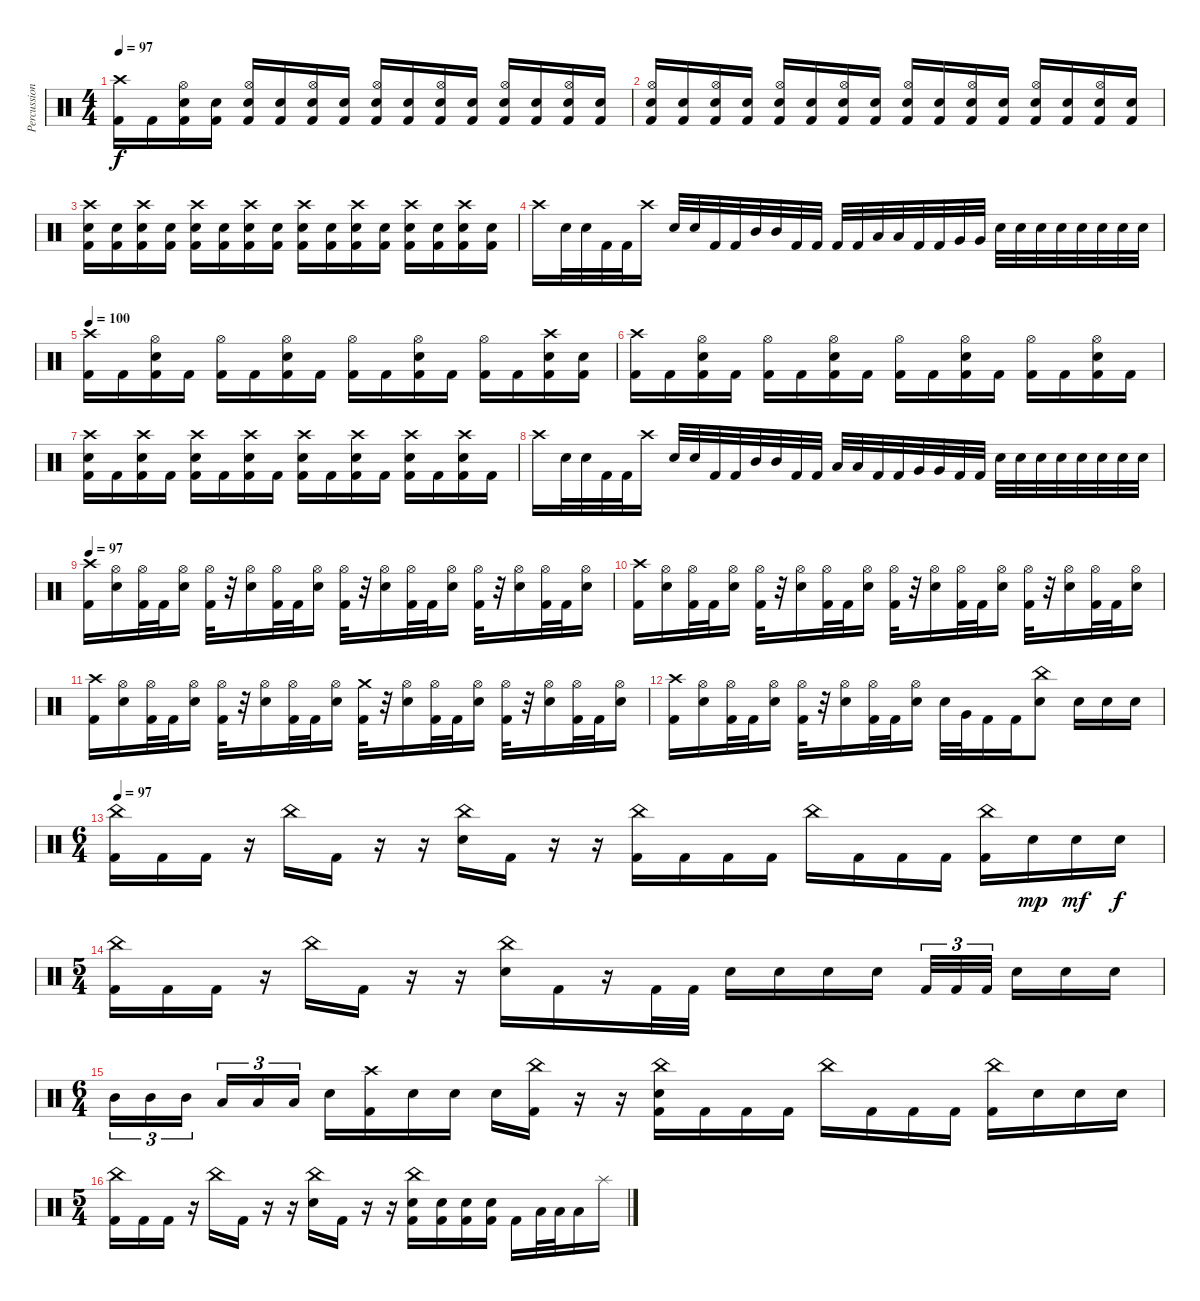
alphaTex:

\track ("Percussion" "Percussion") {instrument percussion}
\staff {score}
\articulation defaults
\ts (4 4)
\tempo 97
\clef neutral
\ks c
("Crash high (hit)" "Kick (hit) 2").16{dy f} "Kick (hit) 2".16 ("Hi-Hat (open)" "Snare (hit) 2" "Kick (hit) 2").16 ("Snare (hit) 2" "Kick (hit) 2").16 ("Hi-Hat (open)" "Snare (hit) 2" "Kick (hit) 2").16 ("Snare (hit) 2" "Kick (hit) 2").16 ("Hi-Hat (open)" "Snare (hit) 2" "Kick (hit) 2").16 ("Snare (hit) 2" "Kick (hit) 2").16 ("Hi-Hat (open)" "Snare (hit) 2" "Kick (hit) 2").16 ("Snare (hit) 2" "Kick (hit) 2").16 ("Hi-Hat (open)" "Snare (hit) 2" "Kick (hit) 2").16 ("Snare (hit) 2" "Kick (hit) 2").16 ("Hi-Hat (open)" "Snare (hit) 2" "Kick (hit) 2").16 ("Snare (hit) 2" "Kick (hit) 2").16 ("Hi-Hat (open)" "Snare (hit) 2" "Kick (hit) 2").16 ("Snare (hit) 2" "Kick (hit) 2").16 |
("Hi-Hat (open)" "Snare (hit) 2" "Kick (hit) 2").16 ("Snare (hit) 2" "Kick (hit) 2").16 ("Hi-Hat (open)" "Snare (hit) 2" "Kick (hit) 2").16 ("Snare (hit) 2" "Kick (hit) 2").16 ("Hi-Hat (open)" "Snare (hit) 2" "Kick (hit) 2").16 ("Snare (hit) 2" "Kick (hit) 2").16 ("Hi-Hat (open)" "Snare (hit) 2" "Kick (hit) 2").16 ("Snare (hit) 2" "Kick (hit) 2").16 ("Hi-Hat (open)" "Snare (hit) 2" "Kick (hit) 2").16 ("Snare (hit) 2" "Kick (hit) 2").16 ("Hi-Hat (open)" "Snare (hit) 2" "Kick (hit) 2").16 ("Snare (hit) 2" "Kick (hit) 2").16 ("Hi-Hat (open)" "Snare (hit) 2" "Kick (hit) 2").16 ("Snare (hit) 2" "Kick (hit) 2").16 ("Hi-Hat (open)" "Snare (hit) 2" "Kick (hit) 2").16 ("Snare (hit) 2" "Kick (hit) 2").16 |
("Crash high (hit)" "Snare (hit) 2" "Kick (hit) 2").16 ("Snare (hit) 2" "Kick (hit) 2").16 ("Crash high (hit)" "Snare (hit) 2" "Kick (hit) 2").16 ("Snare (hit) 2" "Kick (hit) 2").16 ("Crash high (hit)" "Snare (hit) 2" "Kick (hit) 2").16 ("Snare (hit) 2" "Kick (hit) 2").16 ("Crash high (hit)" "Snare (hit) 2" "Kick (hit) 2").16 ("Snare (hit) 2" "Kick (hit) 2").16 ("Crash high (hit)" "Snare (hit) 2" "Kick (hit) 2").16 ("Snare (hit) 2" "Kick (hit) 2").16 ("Crash high (hit)" "Snare (hit) 2" "Kick (hit) 2").16 ("Snare (hit) 2" "Kick (hit) 2").16 ("Crash high (hit)" "Snare (hit) 2" "Kick (hit) 2").16 ("Snare (hit) 2" "Kick (hit) 2").16 ("Crash high (hit)" "Snare (hit) 2" "Kick (hit) 2").16 ("Snare (hit) 2" "Kick (hit) 2").16 |
"Crash high (hit)".16 "Snare (hit) 2".32 "Snare (hit) 2".32 "Kick (hit) 2".32 "Kick (hit) 2".32 "Crash high (hit)".16 "Snare (hit) 2".32 "Snare (hit) 2".32 "Kick (hit) 2".32 "Kick (hit) 2".32 "Mid Tom (hit)".32 "Mid Tom (hit)".32 "Kick (hit) 2".32 "Kick (hit) 2".32 "Kick (hit) 2".32 "Kick (hit) 2".32 "Low Tom (hit)".32 "Low Tom (hit)".32 "Kick (hit) 2".32 "Kick (hit) 2".32 "Very Low Tom (hit)".32 "Very Low Tom (hit)".32 "Snare (hit) 2".32 "Snare (hit) 2".32 "Snare (hit) 2".32 "Snare (hit) 2".32 "Snare (hit) 2".32 "Snare (hit) 2".32 "Snare (hit) 2".32 "Snare (hit) 2".32 |
\tempo 100
("Crash high (hit)" "Kick (hit) 2").16 "Kick (hit) 2".16 ("Hi-Hat (open)" "Snare (hit) 2" "Kick (hit) 2").16 "Kick (hit) 2".16 ("Hi-Hat (open)" "Kick (hit) 2").16 "Kick (hit) 2".16 ("Hi-Hat (open)" "Snare (hit) 2" "Kick (hit) 2").16 "Kick (hit) 2".16 ("Hi-Hat (open)" "Kick (hit) 2").16 "Kick (hit) 2".16 ("Hi-Hat (open)" "Snare (hit) 2" "Kick (hit) 2").16 "Kick (hit) 2".16 ("Hi-Hat (open)" "Kick (hit) 2").16 "Kick (hit) 2".16 ("Crash high (hit)" "Snare (hit) 2" "Kick (hit) 2").16 ("Snare (hit) 2" "Kick (hit) 2").16 |
("Crash high (hit)" "Kick (hit) 2").16 "Kick (hit) 2".16 ("Hi-Hat (open)" "Snare (hit) 2" "Kick (hit) 2").16 "Kick (hit) 2".16 ("Hi-Hat (open)" "Kick (hit) 2").16 "Kick (hit) 2".16 ("Hi-Hat (open)" "Snare (hit) 2" "Kick (hit) 2").16 "Kick (hit) 2".16 ("Hi-Hat (open)" "Kick (hit) 2").16 "Kick (hit) 2".16 ("Hi-Hat (open)" "Snare (hit) 2" "Kick (hit) 2").16 "Kick (hit) 2".16 ("Hi-Hat (open)" "Kick (hit) 2").16 "Kick (hit) 2".16 ("Hi-Hat (open)" "Snare (hit) 2" "Kick (hit) 2").16 "Kick (hit) 2".16 |
("Crash high (hit)" "Snare (hit) 2" "Kick (hit) 2").16 "Kick (hit) 2".16 ("Crash high (hit)" "Snare (hit) 2" "Kick (hit) 2").16 "Kick (hit) 2".16 ("Crash high (hit)" "Snare (hit) 2" "Kick (hit) 2").16 "Kick (hit) 2".16 ("Crash high (hit)" "Snare (hit) 2" "Kick (hit) 2").16 "Kick (hit) 2".16 ("Crash high (hit)" "Snare (hit) 2" "Kick (hit) 2").16 "Kick (hit) 2".16 ("Crash high (hit)" "Snare (hit) 2" "Kick (hit) 2").16 "Kick (hit) 2".16 ("Crash high (hit)" "Snare (hit) 2" "Kick (hit) 2").16 "Kick (hit) 2".16 ("Crash high (hit)" "Snare (hit) 2" "Kick (hit) 2").16 "Kick (hit) 2".16 |
"Crash high (hit)".16 "Snare (hit) 2".32 "Snare (hit) 2".32 "Kick (hit) 2".32 "Kick (hit) 2".32 "Crash high (hit)".16 "Snare (hit) 2".32 "Snare (hit) 2".32 "Kick (hit) 2".32 "Kick (hit) 2".32 "Mid Tom (hit)".32 "Mid Tom (hit)".32 "Kick (hit) 2".32 "Kick (hit) 2".32 "Low Tom (hit)".32 "Low Tom (hit)".32 "Kick (hit) 2".32 "Kick (hit) 2".32 "Very Low Tom (hit)".32 "Very Low Tom (hit)".32 "Kick (hit) 2".32 "Kick (hit) 2".32 "Snare (hit) 2".32 "Snare (hit) 2".32 "Snare (hit) 2".32 "Snare (hit) 2".32 "Snare (hit) 2".32 "Snare (hit) 2".32 "Snare (hit) 2".32 "Snare (hit) 2".32 |
\tempo 97
("Crash high (hit)" "Kick (hit) 2").16 ("Hi-Hat (open)" "Snare (hit) 2").16 ("Hi-Hat (open)" "Kick (hit) 2").32 "Kick (hit) 2".32 ("Hi-Hat (open)" "Snare (hit) 2").16 ("Hi-Hat (open)" "Kick (hit) 2").32 r.32 ("Hi-Hat (open)" "Snare (hit) 2").16 ("Hi-Hat (open)" "Kick (hit) 2").32 "Kick (hit) 2".32 ("Hi-Hat (open)" "Snare (hit) 2").16 ("Hi-Hat (open)" "Kick (hit) 2").32 r.32 ("Hi-Hat (open)" "Snare (hit) 2").16 ("Hi-Hat (open)" "Kick (hit) 2").32 "Kick (hit) 2".32 ("Hi-Hat (open)" "Snare (hit) 2").16 ("Hi-Hat (open)" "Kick (hit) 2").32 r.32 ("Hi-Hat (open)" "Snare (hit) 2").16 ("Hi-Hat (open)" "Kick (hit) 2").32 "Kick (hit) 2".32 ("Hi-Hat (open)" "Snare (hit) 2").16 |
("Crash high (hit)" "Kick (hit) 2").16 ("Hi-Hat (open)" "Snare (hit) 2").16 ("Hi-Hat (open)" "Kick (hit) 2").32 "Kick (hit) 2".32 ("Hi-Hat (open)" "Snare (hit) 2").16 ("Hi-Hat (open)" "Kick (hit) 2").32 r.32 ("Hi-Hat (open)" "Snare (hit) 2").16 ("Hi-Hat (open)" "Kick (hit) 2").32 "Kick (hit) 2".32 ("Hi-Hat (open)" "Snare (hit) 2").16 ("Hi-Hat (open)" "Kick (hit) 2").32 r.32 ("Hi-Hat (open)" "Snare (hit) 2").16 ("Hi-Hat (open)" "Kick (hit) 2").32 "Kick (hit) 2".32 ("Hi-Hat (open)" "Snare (hit) 2").16 ("Hi-Hat (open)" "Kick (hit) 2").32 r.32 ("Hi-Hat (open)" "Snare (hit) 2").16 ("Hi-Hat (open)" "Kick (hit) 2").32 "Kick (hit) 2".32 ("Hi-Hat (open)" "Snare (hit) 2").16 |
("Crash high (hit)" "Kick (hit) 2").16 ("Hi-Hat (open)" "Snare (hit) 2").16 ("Hi-Hat (open)" "Kick (hit) 2").32 "Kick (hit) 2".32 ("Hi-Hat (open)" "Snare (hit) 2").16 ("Hi-Hat (open)" "Kick (hit) 2").32 r.32 ("Hi-Hat (open)" "Snare (hit) 2").16 ("Hi-Hat (open)" "Kick (hit) 2").32 "Kick (hit) 2".32 ("Hi-Hat (open)" "Snare (hit) 2").16 ("Crash medium (hit)" "Kick (hit) 2").32 r.32 ("Hi-Hat (open)" "Snare (hit) 2").16 ("Hi-Hat (open)" "Kick (hit) 2").32 "Kick (hit) 2".32 ("Hi-Hat (open)" "Snare (hit) 2").16 ("Hi-Hat (open)" "Kick (hit) 2").32 r.32 ("Hi-Hat (open)" "Snare (hit) 2").16 ("Hi-Hat (open)" "Kick (hit) 2").32 "Kick (hit) 2".32 ("Hi-Hat (open)" "Snare (hit) 2").16 |
("Crash high (hit)" "Kick (hit) 2").16 ("Hi-Hat (open)" "Snare (hit) 2").16 ("Hi-Hat (open)" "Kick (hit) 2").32 "Kick (hit) 2".32 ("Hi-Hat (open)" "Snare (hit) 2").16 ("Hi-Hat (open)" "Kick (hit) 2").32 r.32 ("Hi-Hat (open)" "Snare (hit) 2").16 ("Hi-Hat (open)" "Kick (hit) 2").32 "Kick (hit) 2".32 ("Hi-Hat (open)" "Snare (hit) 2").16 "Snare (hit) 2".32 "Very Low Tom (hit)".32 "Kick (hit) 2".16 "Kick (hit) 2".16 ("China (hit)" "Snare (hit) 2").8 "Snare (hit) 2".16 "Snare (hit) 2".16 "Snare (hit) 2".16 |
\ts (6 4)
\tempo 97
("China (hit)" "Kick (hit) 2").16 "Kick (hit) 2".16 "Kick (hit) 2".16 r.16 "China (hit)".16 "Kick (hit) 2".16 r.16 r.16 ("China (hit)" "Snare (hit) 2").16 "Kick (hit) 2".16 r.16 r.16 ("China (hit)" "Kick (hit) 2").16 "Kick (hit) 2".16 "Kick (hit) 2".16 "Kick (hit) 2".16 "China (hit)".16 "Kick (hit) 2".16 "Kick (hit) 2".16 "Kick (hit) 2".16 ("China (hit)" "Kick (hit) 2").16 "Snare (hit) 2".16{dy mp} "Snare (hit) 2".16{dy mf} "Snare (hit) 2".16{dy f} |
\ts (5 4)
("China (hit)" "Kick (hit) 2").16 "Kick (hit) 2".16 "Kick (hit) 2".16 r.16 "China (hit)".16 "Kick (hit) 2".16 r.16 r.16 ("China (hit)" "Snare (hit) 2").16 "Kick (hit) 2".16 r.16 "Kick (hit) 2".32 "Kick (hit) 2".32 "Snare (hit) 2".16 "Snare (hit) 2".16 "Snare (hit) 2".16 "Snare (hit) 2".16 "Kick (hit) 2".32{tu (3 2)} "Kick (hit) 2".32{tu (3 2)} "Kick (hit) 2".32{tu (3 2) beam splitsecondary} "Snare (hit) 2".16 "Snare (hit) 2".16 "Snare (hit) 2".16 |
\ts (6 4)
"Mid Tom (hit)".16{tu (3 2)} "Mid Tom (hit)".16{tu (3 2)} "Mid Tom (hit)".16{tu (3 2) beam splitsecondary} "Low Tom (hit)".16{tu (3 2)} "Low Tom (hit)".16{tu (3 2)} "Low Tom (hit)".16{tu (3 2) beam splitsecondary} "Snare (hit) 2".16 ("Crash high (hit)" "Kick (hit) 2").16 "Snare (hit) 2".16 "Snare (hit) 2".16 "Snare (hit) 2".16 ("China (hit)" "Kick (hit) 2").16 r.16 r.16 ("China (hit)" "Snare (hit) 2" "Kick (hit) 2").16 "Kick (hit) 2".16 "Kick (hit) 2".16 "Kick (hit) 2".16 "China (hit)".16 "Kick (hit) 2".16 "Kick (hit) 2".16 "Kick (hit) 2".16 ("China (hit)" "Kick (hit) 2").16 "Snare (hit) 2".16 "Snare (hit) 2".16 "Snare (hit) 2".16 |
\ts (5 4)
("China (hit)" "Kick (hit) 2").16 "Kick (hit) 2".16 "Kick (hit) 2".16 r.16 "China (hit)".16 "Kick (hit) 2".16 r.16 r.16 ("China (hit)" "Snare (hit) 2").16 "Kick (hit) 2".16 r.16 r.16 ("China (hit)" "Snare (hit) 2" "Kick (hit) 2").16 ("Snare (hit) 2" "Kick (hit) 2").16 ("Snare (hit) 2" "Kick (hit) 2").16 ("Snare (hit) 2" "Kick (hit) 2").16 "Kick (hit) 2".16 "Low Tom (hit)".32 "Low Tom (hit)".32 "Low Tom (hit)".16 "Splash (hit)".16
